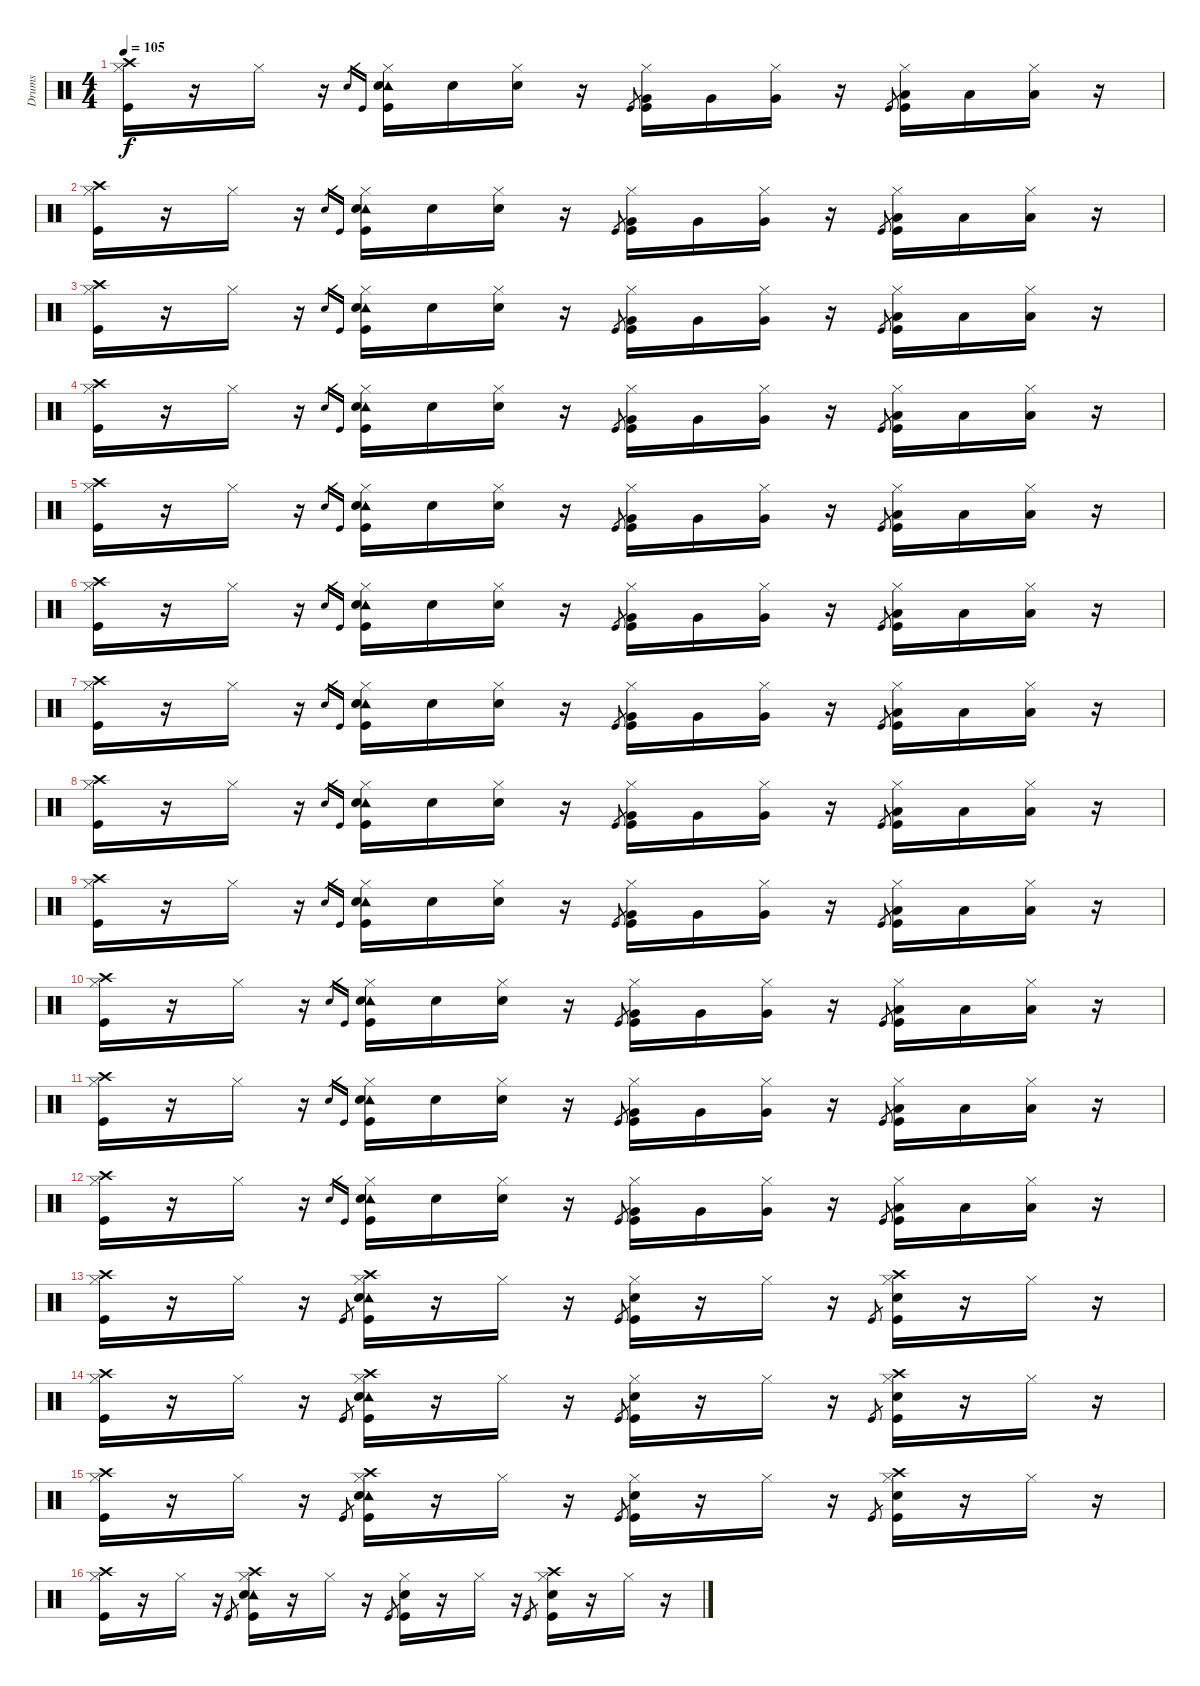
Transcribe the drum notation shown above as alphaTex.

\track ("Drums" "Drums") {instrument percussion}
\staff {score}
\articulation defaults
\ts (4 4)
\tempo 105
\clef neutral
\ks c
("Crash high (hit)" "Hi-Hat (closed)" "Kick (hit)").16{dy f} r.16 "Hi-Hat (closed)".16 r.16 "Snare (hit) 2".16{gr} "Kick (hit)".16{gr} ("Tambourine (hit)" "Hi-Hat (closed)" "Snare (hit) 2" "Kick (hit)").16 "Snare (hit) 2".16 ("Hi-Hat (closed)" "Snare (hit) 2").16 r.16 "Kick (hit)".8{gr} ("Hi-Hat (closed)" "Very Low Tom (hit)" "Kick (hit)").16 "Very Low Tom (hit)".16 ("Hi-Hat (closed)" "Very Low Tom (hit)").16 r.16 "Kick (hit)".8{gr} ("Hi-Hat (closed)" "Low Floor Tom (hit)" "Kick (hit)").16 "Low Floor Tom (hit)".16 ("Hi-Hat (closed)" "Low Floor Tom (hit)").16 r.16 |
("Crash high (hit)" "Hi-Hat (closed)" "Kick (hit)").16 r.16 "Hi-Hat (closed)".16 r.16 "Snare (hit) 2".16{gr} "Kick (hit)".16{gr} ("Tambourine (hit)" "Hi-Hat (closed)" "Snare (hit) 2" "Kick (hit)").16 "Snare (hit) 2".16 ("Hi-Hat (closed)" "Snare (hit) 2").16 r.16 "Kick (hit)".8{gr} ("Hi-Hat (closed)" "Very Low Tom (hit)" "Kick (hit)").16 "Very Low Tom (hit)".16 ("Hi-Hat (closed)" "Very Low Tom (hit)").16 r.16 "Kick (hit)".8{gr} ("Hi-Hat (closed)" "Low Floor Tom (hit)" "Kick (hit)").16 "Low Floor Tom (hit)".16 ("Hi-Hat (closed)" "Low Floor Tom (hit)").16 r.16 |
("Crash high (hit)" "Hi-Hat (closed)" "Kick (hit)").16 r.16 "Hi-Hat (closed)".16 r.16 "Snare (hit) 2".16{gr} "Kick (hit)".16{gr} ("Tambourine (hit)" "Hi-Hat (closed)" "Snare (hit) 2" "Kick (hit)").16 "Snare (hit) 2".16 ("Hi-Hat (closed)" "Snare (hit) 2").16 r.16 "Kick (hit)".8{gr} ("Hi-Hat (closed)" "Very Low Tom (hit)" "Kick (hit)").16 "Very Low Tom (hit)".16 ("Hi-Hat (closed)" "Very Low Tom (hit)").16 r.16 "Kick (hit)".8{gr} ("Hi-Hat (closed)" "Low Floor Tom (hit)" "Kick (hit)").16 "Low Floor Tom (hit)".16 ("Hi-Hat (closed)" "Low Floor Tom (hit)").16 r.16 |
("Crash high (hit)" "Hi-Hat (closed)" "Kick (hit)").16 r.16 "Hi-Hat (closed)".16 r.16 "Snare (hit) 2".16{gr} "Kick (hit)".16{gr} ("Tambourine (hit)" "Hi-Hat (closed)" "Snare (hit) 2" "Kick (hit)").16 "Snare (hit) 2".16 ("Hi-Hat (closed)" "Snare (hit) 2").16 r.16 "Kick (hit)".8{gr} ("Hi-Hat (closed)" "Very Low Tom (hit)" "Kick (hit)").16 "Very Low Tom (hit)".16 ("Hi-Hat (closed)" "Very Low Tom (hit)").16 r.16 "Kick (hit)".8{gr} ("Hi-Hat (closed)" "Low Floor Tom (hit)" "Kick (hit)").16 "Low Floor Tom (hit)".16 ("Hi-Hat (closed)" "Low Floor Tom (hit)").16 r.16 |
("Crash high (hit)" "Hi-Hat (closed)" "Kick (hit)").16 r.16 "Hi-Hat (closed)".16 r.16 "Snare (hit) 2".16{gr} "Kick (hit)".16{gr} ("Tambourine (hit)" "Hi-Hat (closed)" "Snare (hit) 2" "Kick (hit)").16 "Snare (hit) 2".16 ("Hi-Hat (closed)" "Snare (hit) 2").16 r.16 "Kick (hit)".8{gr} ("Hi-Hat (closed)" "Very Low Tom (hit)" "Kick (hit)").16 "Very Low Tom (hit)".16 ("Hi-Hat (closed)" "Very Low Tom (hit)").16 r.16 "Kick (hit)".8{gr} ("Hi-Hat (closed)" "Low Floor Tom (hit)" "Kick (hit)").16 "Low Floor Tom (hit)".16 ("Hi-Hat (closed)" "Low Floor Tom (hit)").16 r.16 |
("Crash high (hit)" "Hi-Hat (closed)" "Kick (hit)").16 r.16 "Hi-Hat (closed)".16 r.16 "Snare (hit) 2".16{gr} "Kick (hit)".16{gr} ("Tambourine (hit)" "Hi-Hat (closed)" "Snare (hit) 2" "Kick (hit)").16 "Snare (hit) 2".16 ("Hi-Hat (closed)" "Snare (hit) 2").16 r.16 "Kick (hit)".8{gr} ("Hi-Hat (closed)" "Very Low Tom (hit)" "Kick (hit)").16 "Very Low Tom (hit)".16 ("Hi-Hat (closed)" "Very Low Tom (hit)").16 r.16 "Kick (hit)".8{gr} ("Hi-Hat (closed)" "Low Floor Tom (hit)" "Kick (hit)").16 "Low Floor Tom (hit)".16 ("Hi-Hat (closed)" "Low Floor Tom (hit)").16 r.16 |
("Crash high (hit)" "Hi-Hat (closed)" "Kick (hit)").16 r.16 "Hi-Hat (closed)".16 r.16 "Snare (hit) 2".16{gr} "Kick (hit)".16{gr} ("Tambourine (hit)" "Hi-Hat (closed)" "Snare (hit) 2" "Kick (hit)").16 "Snare (hit) 2".16 ("Hi-Hat (closed)" "Snare (hit) 2").16 r.16 "Kick (hit)".8{gr} ("Hi-Hat (closed)" "Very Low Tom (hit)" "Kick (hit)").16 "Very Low Tom (hit)".16 ("Hi-Hat (closed)" "Very Low Tom (hit)").16 r.16 "Kick (hit)".8{gr} ("Hi-Hat (closed)" "Low Floor Tom (hit)" "Kick (hit)").16 "Low Floor Tom (hit)".16 ("Hi-Hat (closed)" "Low Floor Tom (hit)").16 r.16 |
("Crash high (hit)" "Hi-Hat (closed)" "Kick (hit)").16 r.16 "Hi-Hat (closed)".16 r.16 "Snare (hit) 2".16{gr} "Kick (hit)".16{gr} ("Tambourine (hit)" "Hi-Hat (closed)" "Snare (hit) 2" "Kick (hit)").16 "Snare (hit) 2".16 ("Hi-Hat (closed)" "Snare (hit) 2").16 r.16 "Kick (hit)".8{gr} ("Hi-Hat (closed)" "Very Low Tom (hit)" "Kick (hit)").16 "Very Low Tom (hit)".16 ("Hi-Hat (closed)" "Very Low Tom (hit)").16 r.16 "Kick (hit)".8{gr} ("Hi-Hat (closed)" "Low Floor Tom (hit)" "Kick (hit)").16 "Low Floor Tom (hit)".16 ("Hi-Hat (closed)" "Low Floor Tom (hit)").16 r.16 |
("Crash high (hit)" "Hi-Hat (closed)" "Kick (hit)").16 r.16 "Hi-Hat (closed)".16 r.16 "Snare (hit) 2".16{gr} "Kick (hit)".16{gr} ("Tambourine (hit)" "Hi-Hat (closed)" "Snare (hit) 2" "Kick (hit)").16 "Snare (hit) 2".16 ("Hi-Hat (closed)" "Snare (hit) 2").16 r.16 "Kick (hit)".8{gr} ("Hi-Hat (closed)" "Very Low Tom (hit)" "Kick (hit)").16 "Very Low Tom (hit)".16 ("Hi-Hat (closed)" "Very Low Tom (hit)").16 r.16 "Kick (hit)".8{gr} ("Hi-Hat (closed)" "Low Floor Tom (hit)" "Kick (hit)").16 "Low Floor Tom (hit)".16 ("Hi-Hat (closed)" "Low Floor Tom (hit)").16 r.16 |
("Crash high (hit)" "Hi-Hat (closed)" "Kick (hit)").16 r.16 "Hi-Hat (closed)".16 r.16 "Snare (hit) 2".16{gr} "Kick (hit)".16{gr} ("Tambourine (hit)" "Hi-Hat (closed)" "Snare (hit) 2" "Kick (hit)").16 "Snare (hit) 2".16 ("Hi-Hat (closed)" "Snare (hit) 2").16 r.16 "Kick (hit)".8{gr} ("Hi-Hat (closed)" "Very Low Tom (hit)" "Kick (hit)").16 "Very Low Tom (hit)".16 ("Hi-Hat (closed)" "Very Low Tom (hit)").16 r.16 "Kick (hit)".8{gr} ("Hi-Hat (closed)" "Low Floor Tom (hit)" "Kick (hit)").16 "Low Floor Tom (hit)".16 ("Hi-Hat (closed)" "Low Floor Tom (hit)").16 r.16 |
("Crash high (hit)" "Hi-Hat (closed)" "Kick (hit)").16 r.16 "Hi-Hat (closed)".16 r.16 "Snare (hit) 2".16{gr} "Kick (hit)".16{gr} ("Tambourine (hit)" "Hi-Hat (closed)" "Snare (hit) 2" "Kick (hit)").16 "Snare (hit) 2".16 ("Hi-Hat (closed)" "Snare (hit) 2").16 r.16 "Kick (hit)".8{gr} ("Hi-Hat (closed)" "Very Low Tom (hit)" "Kick (hit)").16 "Very Low Tom (hit)".16 ("Hi-Hat (closed)" "Very Low Tom (hit)").16 r.16 "Kick (hit)".8{gr} ("Hi-Hat (closed)" "Low Floor Tom (hit)" "Kick (hit)").16 "Low Floor Tom (hit)".16 ("Hi-Hat (closed)" "Low Floor Tom (hit)").16 r.16 |
("Crash high (hit)" "Hi-Hat (closed)" "Kick (hit)").16 r.16 "Hi-Hat (closed)".16 r.16 "Snare (hit) 2".16{gr} "Kick (hit)".16{gr} ("Tambourine (hit)" "Hi-Hat (closed)" "Snare (hit) 2" "Kick (hit)").16 "Snare (hit) 2".16 ("Hi-Hat (closed)" "Snare (hit) 2").16 r.16 "Kick (hit)".8{gr} ("Hi-Hat (closed)" "Very Low Tom (hit)" "Kick (hit)").16 "Very Low Tom (hit)".16 ("Hi-Hat (closed)" "Very Low Tom (hit)").16 r.16 "Kick (hit)".8{gr} ("Hi-Hat (closed)" "Low Floor Tom (hit)" "Kick (hit)").16 "Low Floor Tom (hit)".16 ("Hi-Hat (closed)" "Low Floor Tom (hit)").16 r.16 |
("Crash high (hit)" "Hi-Hat (closed)" "Kick (hit)").16 r.16 "Hi-Hat (closed)".16 r.16 "Kick (hit)".8{gr} ("Crash high (hit)" "Hi-Hat (closed)" "Tambourine (hit)" "Snare (hit) 2" "Kick (hit)").16 r.16 "Hi-Hat (closed)".16 r.16 "Kick (hit)".8{gr} ("Hi-Hat (closed)" "Snare (hit) 2" "Kick (hit)").16 r.16 "Hi-Hat (closed)".16 r.16 "Kick (hit)".8{gr} ("Crash high (hit)" "Hi-Hat (closed)" "Snare (hit) 2" "Kick (hit)").16 r.16 "Hi-Hat (closed)".16 r.16 |
("Crash high (hit)" "Hi-Hat (closed)" "Kick (hit)").16 r.16 "Hi-Hat (closed)".16 r.16 "Kick (hit)".8{gr} ("Crash high (hit)" "Hi-Hat (closed)" "Tambourine (hit)" "Snare (hit) 2" "Kick (hit)").16 r.16 "Hi-Hat (closed)".16 r.16 "Kick (hit)".8{gr} ("Hi-Hat (closed)" "Snare (hit) 2" "Kick (hit)").16 r.16 "Hi-Hat (closed)".16 r.16 "Kick (hit)".8{gr} ("Crash high (hit)" "Hi-Hat (closed)" "Snare (hit) 2" "Kick (hit)").16 r.16 "Hi-Hat (closed)".16 r.16 |
("Crash high (hit)" "Hi-Hat (closed)" "Kick (hit)").16 r.16 "Hi-Hat (closed)".16 r.16 "Kick (hit)".8{gr} ("Crash high (hit)" "Hi-Hat (closed)" "Tambourine (hit)" "Snare (hit) 2" "Kick (hit)").16 r.16 "Hi-Hat (closed)".16 r.16 "Kick (hit)".8{gr} ("Hi-Hat (closed)" "Snare (hit) 2" "Kick (hit)").16 r.16 "Hi-Hat (closed)".16 r.16 "Kick (hit)".8{gr} ("Crash high (hit)" "Hi-Hat (closed)" "Snare (hit) 2" "Kick (hit)").16 r.16 "Hi-Hat (closed)".16 r.16 |
("Crash high (hit)" "Hi-Hat (closed)" "Kick (hit)").16 r.16 "Hi-Hat (closed)".16 r.16 "Kick (hit)".8{gr} ("Crash high (hit)" "Hi-Hat (closed)" "Tambourine (hit)" "Snare (hit) 2" "Kick (hit)").16 r.16 "Hi-Hat (closed)".16 r.16 "Kick (hit)".8{gr} ("Hi-Hat (closed)" "Snare (hit) 2" "Kick (hit)").16 r.16 "Hi-Hat (closed)".16 r.16 "Kick (hit)".8{gr} ("Crash high (hit)" "Hi-Hat (closed)" "Snare (hit) 2" "Kick (hit)").16 r.16 "Hi-Hat (closed)".16 r.16
